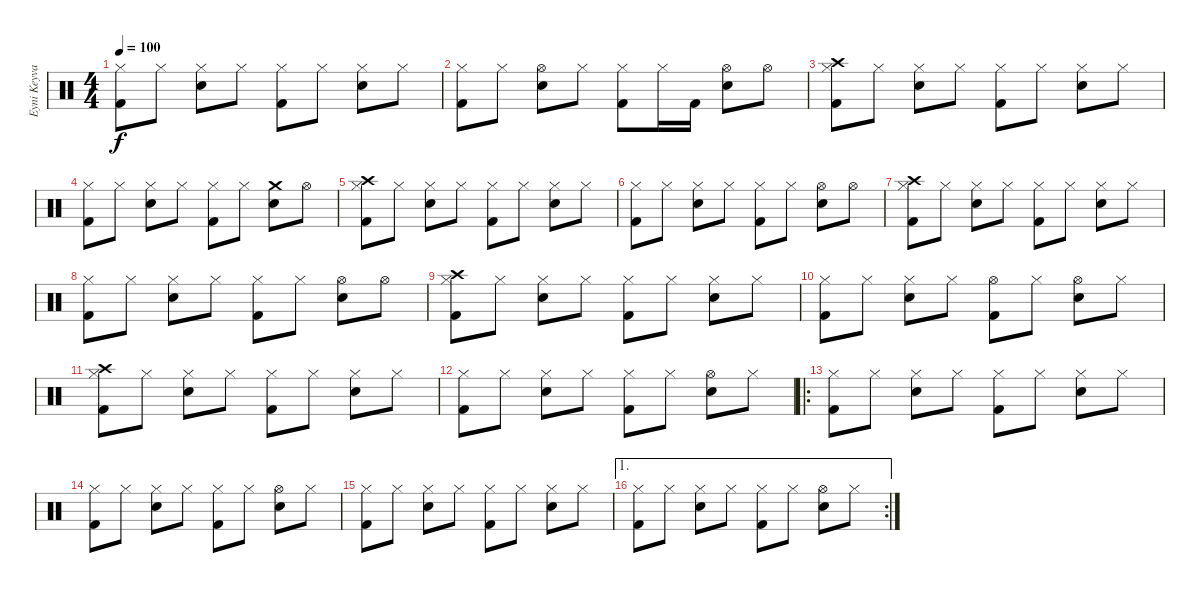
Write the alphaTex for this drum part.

\track ("Eyni Keyvanshokoh" "Eyni Keyva") {instrument percussion}
\staff {score}
\articulation defaults
\ts (4 4)
\tempo 100
\clef neutral
\ks c
("Hi-Hat (closed)" "Kick (hit) 2").8{dy f} "Hi-Hat (closed)".8 ("Hi-Hat (closed)" "Electric Snare (hit)").8 "Hi-Hat (closed)".8 ("Hi-Hat (closed)" "Kick (hit) 2").8 "Hi-Hat (closed)".8 ("Hi-Hat (closed)" "Electric Snare (hit)").8 "Hi-Hat (closed)".8 |
("Hi-Hat (closed)" "Kick (hit) 2").8 "Hi-Hat (closed)".8 ("Hi-Hat (open)" "Electric Snare (hit)").8 "Hi-Hat (closed)".8 ("Hi-Hat (closed)" "Kick (hit) 2").8 "Hi-Hat (closed)".16 "Kick (hit) 2".16 ("Hi-Hat (open)" "Electric Snare (hit)").8 "Hi-Hat (open)".8 |
("Crash high (hit)" "Hi-Hat (closed)" "Kick (hit) 2").8 "Hi-Hat (closed)".8 ("Hi-Hat (closed)" "Electric Snare (hit)").8 "Hi-Hat (closed)".8 ("Hi-Hat (closed)" "Kick (hit) 2").8 "Hi-Hat (closed)".8 ("Hi-Hat (closed)" "Electric Snare (hit)").8 "Hi-Hat (closed)".8 |
("Hi-Hat (closed)" "Kick (hit) 2").8 "Hi-Hat (closed)".8 ("Hi-Hat (closed)" "Electric Snare (hit)").8 "Hi-Hat (closed)".8 ("Hi-Hat (closed)" "Kick (hit) 2").8 "Hi-Hat (closed)".8 ("Crash medium (hit)" "Electric Snare (hit)").8 "Hi-Hat (open)".8 |
("Crash high (hit)" "Hi-Hat (closed)" "Kick (hit) 2").8 "Hi-Hat (closed)".8 ("Hi-Hat (closed)" "Electric Snare (hit)").8 "Hi-Hat (closed)".8 ("Hi-Hat (closed)" "Kick (hit) 2").8 "Hi-Hat (closed)".8 ("Hi-Hat (closed)" "Electric Snare (hit)").8 "Hi-Hat (closed)".8 |
("Hi-Hat (closed)" "Kick (hit) 2").8 "Hi-Hat (closed)".8 ("Hi-Hat (closed)" "Electric Snare (hit)").8 "Hi-Hat (closed)".8 ("Hi-Hat (closed)" "Kick (hit) 2").8 "Hi-Hat (closed)".8 ("Hi-Hat (open)" "Electric Snare (hit)").8 "Hi-Hat (open)".8 |
("Crash high (hit)" "Hi-Hat (closed)" "Kick (hit) 2").8 "Hi-Hat (closed)".8 ("Hi-Hat (closed)" "Electric Snare (hit)").8 "Hi-Hat (closed)".8 ("Hi-Hat (closed)" "Kick (hit) 2").8 "Hi-Hat (closed)".8 ("Hi-Hat (closed)" "Electric Snare (hit)").8 "Hi-Hat (closed)".8 |
("Hi-Hat (closed)" "Kick (hit) 2").8 "Hi-Hat (closed)".8 ("Hi-Hat (closed)" "Electric Snare (hit)").8 "Hi-Hat (closed)".8 ("Hi-Hat (closed)" "Kick (hit) 2").8 "Hi-Hat (closed)".8 ("Hi-Hat (open)" "Electric Snare (hit)").8 "Hi-Hat (open)".8 |
("Crash high (hit)" "Hi-Hat (closed)" "Kick (hit) 2").8 "Hi-Hat (closed)".8 ("Hi-Hat (closed)" "Electric Snare (hit)").8 "Hi-Hat (closed)".8 ("Hi-Hat (closed)" "Kick (hit) 2").8 "Hi-Hat (closed)".8 ("Hi-Hat (closed)" "Electric Snare (hit)").8 "Hi-Hat (closed)".8 |
("Hi-Hat (closed)" "Kick (hit) 2").8 "Hi-Hat (closed)".8 ("Hi-Hat (closed)" "Electric Snare (hit)").8 "Hi-Hat (closed)".8 ("Hi-Hat (open)" "Kick (hit) 2").8 "Hi-Hat (closed)".8 ("Hi-Hat (open)" "Electric Snare (hit)").8 "Hi-Hat (closed)".8 |
("Crash high (hit)" "Hi-Hat (closed)" "Kick (hit) 2").8 "Hi-Hat (closed)".8 ("Hi-Hat (closed)" "Electric Snare (hit)").8 "Hi-Hat (closed)".8 ("Hi-Hat (closed)" "Kick (hit) 2").8 "Hi-Hat (closed)".8 ("Hi-Hat (closed)" "Electric Snare (hit)").8 "Hi-Hat (closed)".8 |
("Hi-Hat (closed)" "Kick (hit) 2").8 "Hi-Hat (closed)".8 ("Hi-Hat (closed)" "Electric Snare (hit)").8 "Hi-Hat (closed)".8 ("Hi-Hat (closed)" "Kick (hit) 2").8 "Hi-Hat (closed)".8 ("Hi-Hat (open)" "Electric Snare (hit)").8 "Hi-Hat (closed)".8 |
\ro
("Hi-Hat (closed)" "Kick (hit) 2").8 "Hi-Hat (closed)".8 ("Hi-Hat (closed)" "Electric Snare (hit)").8 "Hi-Hat (closed)".8 ("Hi-Hat (closed)" "Kick (hit) 2").8 "Hi-Hat (closed)".8 ("Hi-Hat (closed)" "Electric Snare (hit)").8 "Hi-Hat (closed)".8 |
("Hi-Hat (closed)" "Kick (hit) 2").8 "Hi-Hat (closed)".8 ("Hi-Hat (closed)" "Electric Snare (hit)").8 "Hi-Hat (closed)".8 ("Hi-Hat (closed)" "Kick (hit) 2").8 "Hi-Hat (closed)".8 ("Hi-Hat (open)" "Electric Snare (hit)").8 "Hi-Hat (closed)".8 |
("Hi-Hat (closed)" "Kick (hit) 2").8 "Hi-Hat (closed)".8 ("Hi-Hat (closed)" "Electric Snare (hit)").8 "Hi-Hat (closed)".8 ("Hi-Hat (closed)" "Kick (hit) 2").8 "Hi-Hat (closed)".8 ("Hi-Hat (closed)" "Electric Snare (hit)").8 "Hi-Hat (closed)".8 |
\ae 1
\rc 2
("Hi-Hat (closed)" "Kick (hit) 2").8 "Hi-Hat (closed)".8 ("Hi-Hat (closed)" "Electric Snare (hit)").8 "Hi-Hat (closed)".8 ("Hi-Hat (closed)" "Kick (hit) 2").8 "Hi-Hat (closed)".8 ("Hi-Hat (open)" "Electric Snare (hit)").8 "Hi-Hat (closed)".8
